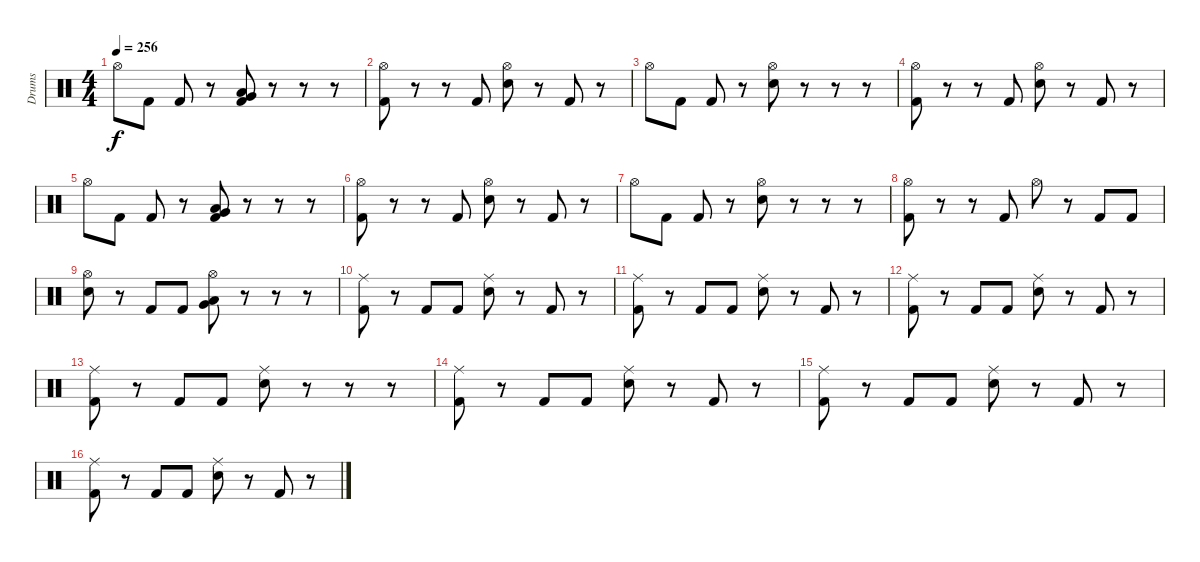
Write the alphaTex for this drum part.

\track ("Drums" "Drums") {instrument percussion}
\staff {score}
\articulation defaults
\ts (4 4)
\tempo 256
\clef neutral
\ks c "Hi-Hat (open)".8{dy f} "Kick (hit) 2".8 "Kick (hit) 2".8
r.8 ("Low Tom (hit)" "Very Low Tom (hit)" "Kick (hit) 2").8 r.8 r.8 r.8 |
("Hi-Hat (open)" "Kick (hit) 2").8 r.8 r.8 "Kick (hit) 2".8 ("Hi-Hat (open)" "Electric Snare (hit)").8 r.8 "Kick (hit) 2".8 r.8 |
"Hi-Hat (open)".8 "Kick (hit) 2".8 "Kick (hit) 2".8 r.8 ("Hi-Hat (open)" "Electric Snare (hit)").8 r.8 r.8 r.8 |
("Hi-Hat (open)" "Kick (hit) 2").8 r.8 r.8 "Kick (hit) 2".8 ("Hi-Hat (open)" "Electric Snare (hit)").8 r.8 "Kick (hit) 2".8 r.8 |
"Hi-Hat (open)".8 "Kick (hit) 2".8 "Kick (hit) 2".8 r.8 ("Low Tom (hit)" "Very Low Tom (hit)" "Kick (hit) 2").8 r.8 r.8 r.8 |
("Hi-Hat (open)" "Kick (hit) 2").8 r.8 r.8 "Kick (hit) 2".8 ("Hi-Hat (open)" "Electric Snare (hit)").8 r.8 "Kick (hit) 2".8 r.8 |
"Hi-Hat (open)".8 "Kick (hit) 2".8 "Kick (hit) 2".8 r.8 ("Hi-Hat (open)" "Electric Snare (hit)").8 r.8 r.8 r.8 |
("Hi-Hat (open)" "Kick (hit) 2").8 r.8 r.8 "Kick (hit) 2".8 "Hi-Hat (open)".8 r.8 "Kick (hit) 2".8 "Kick (hit) 2".8 |
("Hi-Hat (open)" "Electric Snare (hit)").8 r.8 "Kick (hit) 2".8 "Kick (hit) 2".8 ("Hi-Hat (open)" "Low Tom (hit)" "Very Low Tom (hit)").8 r.8 r.8 r.8 |
("Ride (middle)" "Kick (hit) 2").8 r.8 "Kick (hit) 2".8 "Kick (hit) 2".8 ("Ride (middle)" "Electric Snare (hit)").8 r.8 "Kick (hit) 2".8 r.8 |
("Ride (middle)" "Kick (hit) 2").8 r.8 "Kick (hit) 2".8 "Kick (hit) 2".8 ("Ride (middle)" "Electric Snare (hit)").8 r.8 "Kick (hit) 2".8 r.8 |
("Ride (middle)" "Kick (hit) 2").8 r.8 "Kick (hit) 2".8 "Kick (hit) 2".8 ("Ride (middle)" "Electric Snare (hit)").8 r.8 "Kick (hit) 2".8 r.8 |
("Ride (middle)" "Kick (hit) 2").8 r.8 "Kick (hit) 2".8 "Kick (hit) 2".8 ("Ride (middle)" "Electric Snare (hit)").8 r.8 r.8 r.8 |
("Ride (middle)" "Kick (hit) 2").8 r.8 "Kick (hit) 2".8 "Kick (hit) 2".8 ("Ride (middle)" "Electric Snare (hit)").8 r.8 "Kick (hit) 2".8 r.8 |
("Ride (middle)" "Kick (hit) 2").8 r.8 "Kick (hit) 2".8 "Kick (hit) 2".8 ("Ride (middle)" "Electric Snare (hit)").8 r.8 "Kick (hit) 2".8 r.8 |
("Ride (middle)" "Kick (hit) 2").8 r.8 "Kick (hit) 2".8 "Kick (hit) 2".8 ("Ride (middle)" "Electric Snare (hit)").8 r.8 "Kick (hit) 2".8 r.8
